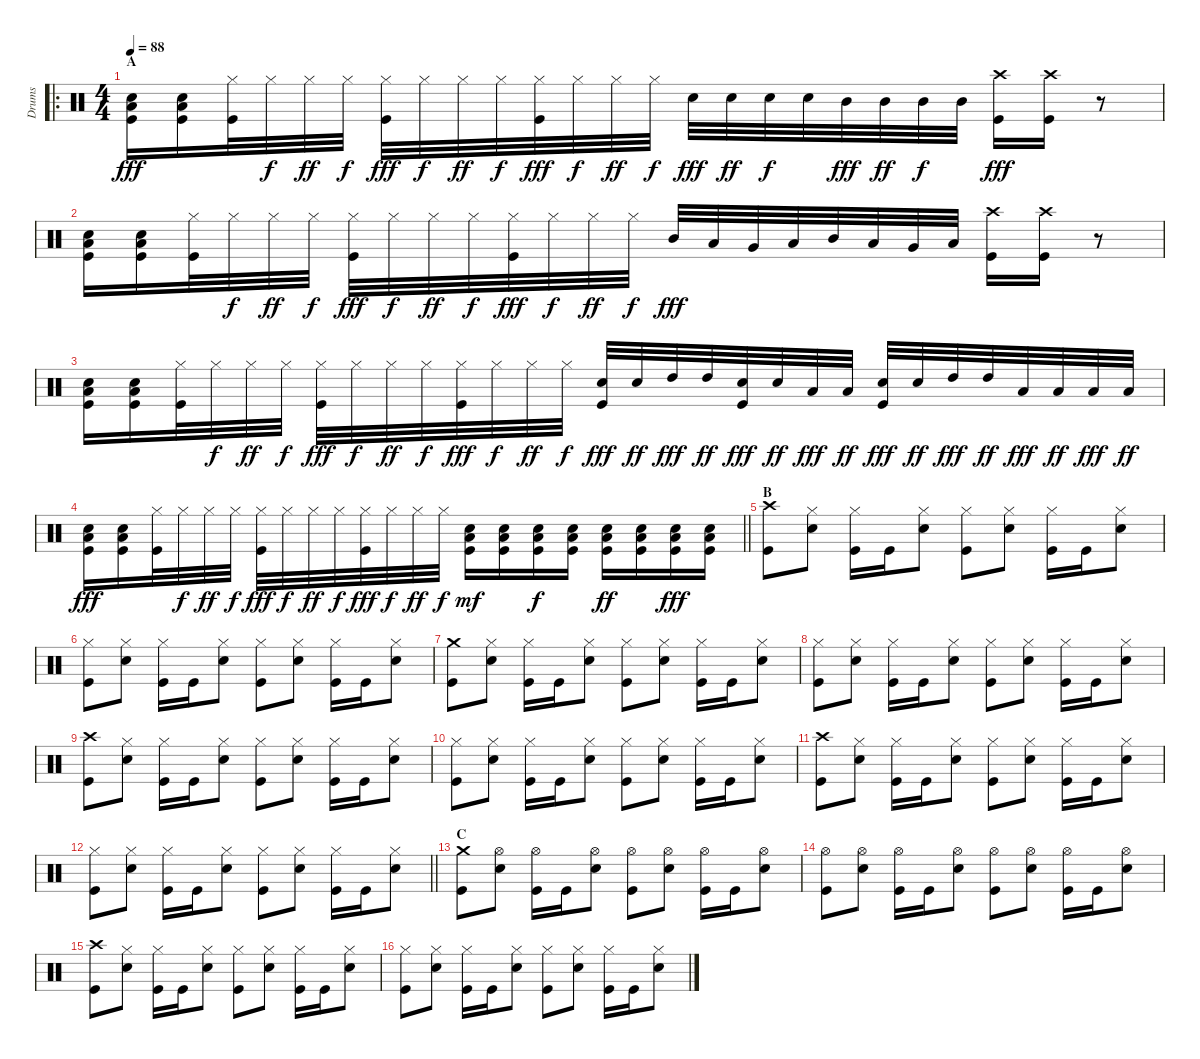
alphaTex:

\track ("Drums" "Drums") {instrument percussion}
\staff {score}
\articulation defaults
\ro
\ts (4 4)
\section ("" "A")
\tempo 88
\clef neutral
\ks c
("Low Floor Tom (hit)" "Snare (hit) 2" "Kick (hit)").16{dy fff} ("Low Floor Tom (hit)" "Snare (hit) 2" "Kick (hit)").16 ("Hi-Hat (closed)" "Kick (hit)").32 "Hi-Hat (closed)".32{dy f} "Hi-Hat (closed)".32{dy ff} "Hi-Hat (closed)".32{dy f} ("Hi-Hat (closed)" "Kick (hit)").32{dy fff} "Hi-Hat (closed)".32{dy f} "Hi-Hat (closed)".32{dy ff} "Hi-Hat (closed)".32{dy f} ("Hi-Hat (closed)" "Kick (hit)").32{dy fff} "Hi-Hat (closed)".32{dy f} "Hi-Hat (closed)".32{dy ff} "Hi-Hat (closed)".32{dy f} "Snare (hit) 2".32{dy fff} "Snare (hit) 2".32{dy ff} "Snare (hit) 2".32{dy f} "Snare (hit) 2".32 "Mid Tom (hit)".32{dy fff} "Mid Tom (hit)".32{dy ff} "Mid Tom (hit)".32{dy f} "Mid Tom (hit)".32 ("Crash high (hit)" "Kick (hit)").16{dy fff} ("Crash high (hit)" "Kick (hit)").16 r.8 |
("Low Floor Tom (hit)" "Snare (hit) 2" "Kick (hit)").16 ("Low Floor Tom (hit)" "Snare (hit) 2" "Kick (hit)").16 ("Hi-Hat (closed)" "Kick (hit)").32 "Hi-Hat (closed)".32{dy f} "Hi-Hat (closed)".32{dy ff} "Hi-Hat (closed)".32{dy f} ("Hi-Hat (closed)" "Kick (hit)").32{dy fff} "Hi-Hat (closed)".32{dy f} "Hi-Hat (closed)".32{dy ff} "Hi-Hat (closed)".32{dy f} ("Hi-Hat (closed)" "Kick (hit)").32{dy fff} "Hi-Hat (closed)".32{dy f} "Hi-Hat (closed)".32{dy ff} "Hi-Hat (closed)".32{dy f} "Mid Tom (hit)".32{dy fff} "Low Tom (hit)".32 "Very Low Tom (hit)".32 "Low Floor Tom (hit)".32 "Mid Tom (hit)".32 "Low Tom (hit)".32 "Very Low Tom (hit)".32 "Low Floor Tom (hit)".32 ("Crash high (hit)" "Kick (hit)").16 ("Crash high (hit)" "Kick (hit)").16 r.8 |
("Low Floor Tom (hit)" "Snare (hit) 2" "Kick (hit)").16 ("Low Floor Tom (hit)" "Snare (hit) 2" "Kick (hit)").16 ("Hi-Hat (closed)" "Kick (hit)").32 "Hi-Hat (closed)".32{dy f} "Hi-Hat (closed)".32{dy ff} "Hi-Hat (closed)".32{dy f} ("Hi-Hat (closed)" "Kick (hit)").32{dy fff} "Hi-Hat (closed)".32{dy f} "Hi-Hat (closed)".32{dy ff} "Hi-Hat (closed)".32{dy f} ("Hi-Hat (closed)" "Kick (hit)").32{dy fff} "Hi-Hat (closed)".32{dy f} "Hi-Hat (closed)".32{dy ff} "Hi-Hat (closed)".32{dy f} ("Snare (hit) 2" "Kick (hit)").32{dy fff} "Snare (hit) 2".32{dy ff} "High Tom (hit)".32{dy fff} "High Tom (hit)".32{dy ff} ("Snare (hit) 2" "Kick (hit)").32{dy fff} "Snare (hit) 2".32{dy ff} "Low Tom (hit)".32{dy fff} "Low Tom (hit)".32{dy ff} ("Snare (hit) 2" "Kick (hit)").32{dy fff} "Snare (hit) 2".32{dy ff} "High Tom (hit)".32{dy fff} "High Tom (hit)".32{dy ff} "Low Tom (hit)".32{dy fff} "Low Tom (hit)".32{dy ff} "Low Floor Tom (hit)".32{dy fff} "Low Floor Tom (hit)".32{dy ff} |
\barLineRight lightlight
("Low Floor Tom (hit)" "Snare (hit) 2" "Kick (hit)").16{dy fff} ("Low Floor Tom (hit)" "Snare (hit) 2" "Kick (hit)").16 ("Hi-Hat (closed)" "Kick (hit)").32 "Hi-Hat (closed)".32{dy f} "Hi-Hat (closed)".32{dy ff} "Hi-Hat (closed)".32{dy f} ("Hi-Hat (closed)" "Kick (hit)").32{dy fff} "Hi-Hat (closed)".32{dy f} "Hi-Hat (closed)".32{dy ff} "Hi-Hat (closed)".32{dy f} ("Hi-Hat (closed)" "Kick (hit)").32{dy fff} "Hi-Hat (closed)".32{dy f} "Hi-Hat (closed)".32{dy ff} "Hi-Hat (closed)".32{dy f} ("Low Tom (hit)" "Snare (hit) 2" "Kick (hit)").16{dy mf} ("Low Tom (hit)" "Snare (hit) 2" "Kick (hit)").16 ("Low Tom (hit)" "Snare (hit) 2" "Kick (hit)").16{dy f} ("Low Tom (hit)" "Snare (hit) 2" "Kick (hit)").16 ("Low Tom (hit)" "Snare (hit) 2" "Kick (hit)").16{dy ff} ("Low Tom (hit)" "Snare (hit) 2" "Kick (hit)").16 ("Low Tom (hit)" "Snare (hit) 2" "Kick (hit)").16{dy fff} ("Low Tom (hit)" "Snare (hit) 2" "Kick (hit)").16 |
\section ("" "B")
("Crash high (hit)" "Kick (hit)").8 ("Hi-Hat (closed)" "Snare (hit) 2").8 ("Hi-Hat (closed)" "Kick (hit)").16 "Kick (hit)".16 ("Hi-Hat (closed)" "Snare (hit) 2").8 ("Hi-Hat (closed)" "Kick (hit)").8 ("Hi-Hat (closed)" "Snare (hit) 2").8 ("Hi-Hat (closed)" "Kick (hit)").16 "Kick (hit)".16 ("Hi-Hat (closed)" "Snare (hit) 2").8 |
("Hi-Hat (closed)" "Kick (hit)").8 ("Hi-Hat (closed)" "Snare (hit) 2").8 ("Hi-Hat (closed)" "Kick (hit)").16 "Kick (hit)".16 ("Hi-Hat (closed)" "Snare (hit) 2").8 ("Hi-Hat (closed)" "Kick (hit)").8 ("Hi-Hat (closed)" "Snare (hit) 2").8 ("Hi-Hat (closed)" "Kick (hit)").16 "Kick (hit)".16 ("Hi-Hat (closed)" "Snare (hit) 2").8 |
("Crash medium (hit)" "Kick (hit)").8 ("Hi-Hat (closed)" "Snare (hit) 2").8 ("Hi-Hat (closed)" "Kick (hit)").16 "Kick (hit)".16 ("Hi-Hat (closed)" "Snare (hit) 2").8 ("Hi-Hat (closed)" "Kick (hit)").8 ("Hi-Hat (closed)" "Snare (hit) 2").8 ("Hi-Hat (closed)" "Kick (hit)").16 "Kick (hit)".16 ("Hi-Hat (closed)" "Snare (hit) 2").8 |
("Hi-Hat (closed)" "Kick (hit)").8 ("Hi-Hat (closed)" "Snare (hit) 2").8 ("Hi-Hat (closed)" "Kick (hit)").16 "Kick (hit)".16 ("Hi-Hat (closed)" "Snare (hit) 2").8 ("Hi-Hat (closed)" "Kick (hit)").8 ("Hi-Hat (closed)" "Snare (hit) 2").8 ("Hi-Hat (closed)" "Kick (hit)").16 "Kick (hit)".16 ("Hi-Hat (closed)" "Snare (hit) 2").8 |
("Crash high (hit)" "Kick (hit)").8 ("Hi-Hat (closed)" "Snare (hit) 2").8 ("Hi-Hat (closed)" "Kick (hit)").16 "Kick (hit)".16 ("Hi-Hat (closed)" "Snare (hit) 2").8 ("Hi-Hat (closed)" "Kick (hit)").8 ("Hi-Hat (closed)" "Snare (hit) 2").8 ("Hi-Hat (closed)" "Kick (hit)").16 "Kick (hit)".16 ("Hi-Hat (closed)" "Snare (hit) 2").8 |
("Hi-Hat (closed)" "Kick (hit)").8 ("Hi-Hat (closed)" "Snare (hit) 2").8 ("Hi-Hat (closed)" "Kick (hit)").16 "Kick (hit)".16 ("Hi-Hat (closed)" "Snare (hit) 2").8 ("Hi-Hat (closed)" "Kick (hit)").8 ("Hi-Hat (closed)" "Snare (hit) 2").8 ("Hi-Hat (closed)" "Kick (hit)").16 "Kick (hit)".16 ("Hi-Hat (closed)" "Snare (hit) 2").8 |
("Crash high (hit)" "Kick (hit)").8 ("Hi-Hat (closed)" "Snare (hit) 2").8 ("Hi-Hat (closed)" "Kick (hit)").16 "Kick (hit)".16 ("Hi-Hat (closed)" "Snare (hit) 2").8 ("Hi-Hat (closed)" "Kick (hit)").8 ("Hi-Hat (closed)" "Snare (hit) 2").8 ("Hi-Hat (closed)" "Kick (hit)").16 "Kick (hit)".16 ("Hi-Hat (closed)" "Snare (hit) 2").8 |
\barLineRight lightlight
("Hi-Hat (closed)" "Kick (hit)").8 ("Hi-Hat (closed)" "Snare (hit) 2").8 ("Hi-Hat (closed)" "Kick (hit)").16 "Kick (hit)".16 ("Hi-Hat (closed)" "Snare (hit) 2").8 ("Hi-Hat (closed)" "Kick (hit)").8 ("Hi-Hat (closed)" "Snare (hit) 2").8 ("Hi-Hat (closed)" "Kick (hit)").16 "Kick (hit)".16 ("Hi-Hat (closed)" "Snare (hit) 2").8 |
\section ("" "C")
("Crash medium (hit)" "Kick (hit)").8 ("Hi-Hat (open)" "Snare (hit) 2").8 ("Hi-Hat (open)" "Kick (hit)").16 "Kick (hit)".16 ("Hi-Hat (open)" "Snare (hit) 2").8 ("Hi-Hat (open)" "Kick (hit)").8 ("Hi-Hat (open)" "Snare (hit) 2").8 ("Hi-Hat (open)" "Kick (hit)").16 "Kick (hit)".16 ("Hi-Hat (open)" "Snare (hit) 2").8 |
("Hi-Hat (open)" "Kick (hit)").8 ("Hi-Hat (open)" "Snare (hit) 2").8 ("Hi-Hat (open)" "Kick (hit)").16 "Kick (hit)".16 ("Hi-Hat (open)" "Snare (hit) 2").8 ("Hi-Hat (open)" "Kick (hit)").8 ("Hi-Hat (open)" "Snare (hit) 2").8 ("Hi-Hat (open)" "Kick (hit)").16 "Kick (hit)".16 ("Hi-Hat (open)" "Snare (hit) 2").8 |
("Crash high (hit)" "Kick (hit)").8 ("Hi-Hat (closed)" "Snare (hit) 2").8 ("Hi-Hat (closed)" "Kick (hit)").16 "Kick (hit)".16 ("Hi-Hat (closed)" "Snare (hit) 2").8 ("Hi-Hat (closed)" "Kick (hit)").8 ("Hi-Hat (closed)" "Snare (hit) 2").8 ("Hi-Hat (closed)" "Kick (hit)").16 "Kick (hit)".16 ("Hi-Hat (closed)" "Snare (hit) 2").8 |
("Hi-Hat (closed)" "Kick (hit)").8 ("Hi-Hat (closed)" "Snare (hit) 2").8 ("Hi-Hat (closed)" "Kick (hit)").16 "Kick (hit)".16 ("Hi-Hat (closed)" "Snare (hit) 2").8 ("Hi-Hat (closed)" "Kick (hit)").8 ("Hi-Hat (closed)" "Snare (hit) 2").8 ("Hi-Hat (closed)" "Kick (hit)").16 "Kick (hit)".16 ("Hi-Hat (closed)" "Snare (hit) 2").8
